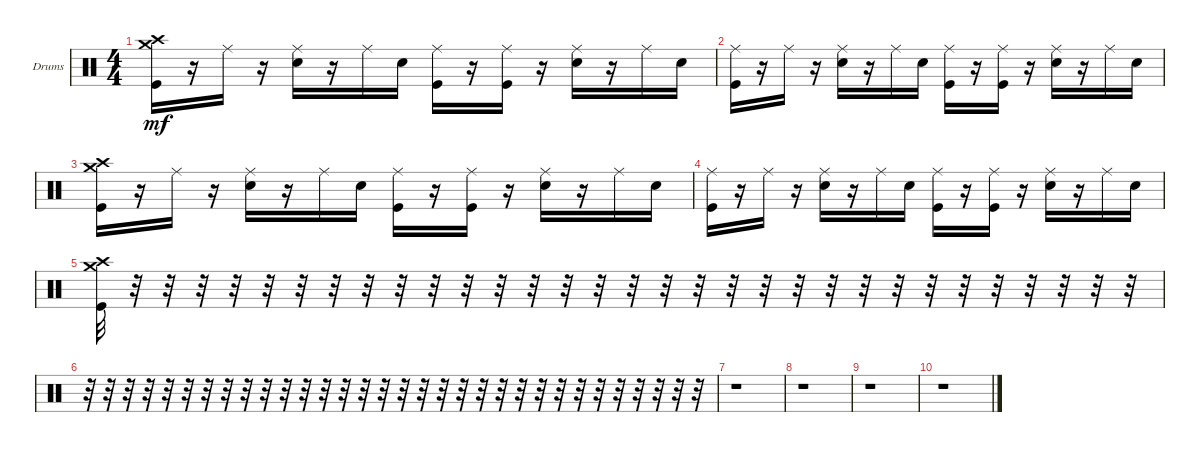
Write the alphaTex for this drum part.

\defaultSystemsLayout 4
\bracketExtendMode groupsimilarinstruments
\firstSystemTrackNameOrientation horizontal
\otherSystemsTrackNameOrientation horizontal
\track ("Drums" "Drums") {instrument percussion}
\staff {score}
\articulation defaults
\ts (4 4)
\tempo (92 hide)
\clef neutral
\ks c
("Crash medium (hit)" "Crash high (hit)" "Kick (hit)").16{dy mf} r.16 "Ride (middle)".16 r.16 ("Ride (middle)" "Snare (hit) 2").16 r.16 "Ride (middle)".16 "Snare (hit) 2".16 ("Ride (middle)" "Kick (hit)").16 r.16 ("Ride (middle)" "Kick (hit)").16 r.16 ("Ride (middle)" "Snare (hit) 2").16 r.16 "Ride (middle)".16 "Snare (hit) 2".16 |
("Ride (middle)" "Kick (hit)").16 r.16 "Ride (middle)".16 r.16 ("Ride (middle)" "Snare (hit) 2").16 r.16 "Ride (middle)".16 "Snare (hit) 2".16 ("Ride (middle)" "Kick (hit)").16 r.16 ("Ride (middle)" "Kick (hit)").16 r.16 ("Ride (middle)" "Snare (hit) 2").16 r.16 "Ride (middle)".16 "Snare (hit) 2".16 |
("Crash medium (hit)" "Crash high (hit)" "Kick (hit)").16 r.16 "Ride (middle)".16 r.16 ("Ride (middle)" "Snare (hit) 2").16 r.16 "Ride (middle)".16 "Snare (hit) 2".16 ("Ride (middle)" "Kick (hit)").16 r.16 ("Ride (middle)" "Kick (hit)").16 r.16 ("Ride (middle)" "Snare (hit) 2").16 r.16 "Ride (middle)".16 "Snare (hit) 2".16 |
("Ride (middle)" "Kick (hit)").16 r.16 "Ride (middle)".16 r.16 ("Ride (middle)" "Snare (hit) 2").16 r.16 "Ride (middle)".16 "Snare (hit) 2".16 ("Ride (middle)" "Kick (hit)").16 r.16 ("Ride (middle)" "Kick (hit)").16 r.16 ("Ride (middle)" "Snare (hit) 2").16 r.16 "Ride (middle)".16 "Snare (hit) 2".16 |
("Crash medium (hit)" "Crash high (hit)" "Kick (hit)").32 r.32 r.32 r.32 r.32 r.32 r.32 r.32 r.32 r.32 r.32 r.32 r.32 r.32 r.32 r.32 r.32 r.32 r.32 r.32 r.32 r.32 r.32 r.32 r.32 r.32 r.32 r.32 r.32 r.32 r.32 r.32 |
r.32 r.32 r.32 r.32 r.32 r.32 r.32 r.32 r.32 r.32 r.32 r.32 r.32 r.32 r.32 r.32 r.32 r.32 r.32 r.32 r.32 r.32 r.32 r.32 r.32 r.32 r.32 r.32 r.32 r.32 r.32 r.32 |
\tempo (80 0.25 hide)
r.1 |
\tempo (90 hide)
\tempo (85 0.75 hide)
r.1 |
r.1 |
r.1
